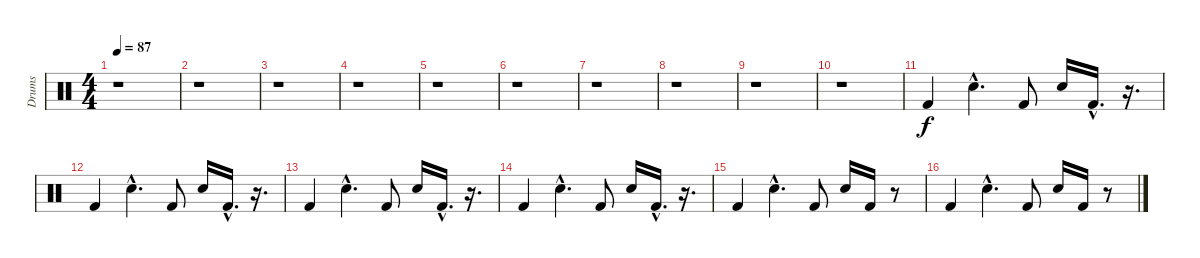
\track ("Drums" "Drums") {instrument percussion}
\staff {score}
\articulation defaults
\ts (4 4)
\tempo 87
\clef neutral
\ks c
r.1{dy f} |
r.1 |
r.1 |
r.1 |
r.1 |
r.1 |
r.1 |
r.1 |
r.1 |
r.1 |
"Kick (hit) 2".4 "Electric Snare (hit)"{hac}.4{d} "Kick (hit) 2".8 "Electric Snare (hit)".16 "Kick (hit) 2"{hac}.16{d} r.16{d} |
"Kick (hit) 2".4 "Electric Snare (hit)"{hac}.4{d} "Kick (hit) 2".8 "Electric Snare (hit)".16 "Kick (hit) 2"{hac}.16{d} r.16{d} |
"Kick (hit) 2".4 "Electric Snare (hit)"{hac}.4{d} "Kick (hit) 2".8 "Electric Snare (hit)".16 "Kick (hit) 2"{hac}.16{d} r.16{d} |
"Kick (hit) 2".4 "Electric Snare (hit)"{hac}.4{d} "Kick (hit) 2".8 "Electric Snare (hit)".16 "Kick (hit) 2"{hac}.16{d} r.16{d} |
"Kick (hit) 2".4 "Electric Snare (hit)"{hac}.4{d} "Kick (hit) 2".8 "Electric Snare (hit)".16 "Kick (hit) 2".16 r.8 |
"Kick (hit) 2".4 "Electric Snare (hit)"{hac}.4{d} "Kick (hit) 2".8 "Electric Snare (hit)".16 "Kick (hit) 2".16 r.8
